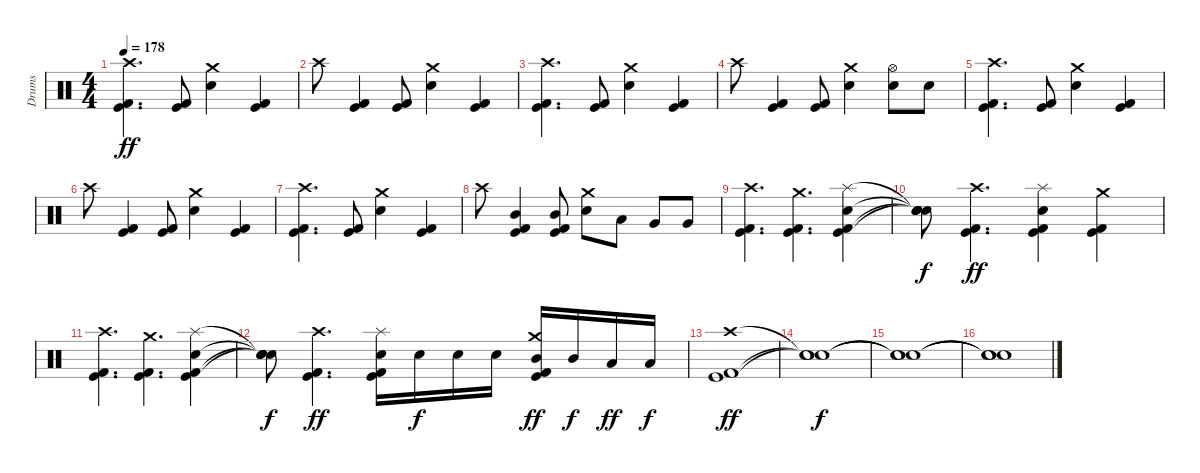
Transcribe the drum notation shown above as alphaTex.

\track ("Drums" "Drums") {instrument percussion}
\staff {score}
\articulation defaults
\ts (4 4)
\tempo 178
\clef neutral
\ks c
("Kick (hit)" "Kick (hit) 2" "Crash high (hit)").4{d dy ff} ("Kick (hit)" "Kick (hit) 2").8 ("Electric Snare (hit)" "Crash medium (hit)").4 ("Kick (hit)" "Kick (hit) 2").4 |
"Crash high (hit)".8 ("Kick (hit)" "Kick (hit) 2").4 ("Kick (hit)" "Kick (hit) 2").8 ("Electric Snare (hit)" "Crash medium (hit)").4 ("Kick (hit)" "Kick (hit) 2").4 |
("Kick (hit)" "Kick (hit) 2" "Crash high (hit)").4{d} ("Kick (hit)" "Kick (hit) 2").8 ("Electric Snare (hit)" "Crash medium (hit)").4 ("Kick (hit)" "Kick (hit) 2").4 |
"Crash high (hit)".8 ("Kick (hit)" "Kick (hit) 2").4 ("Kick (hit)" "Kick (hit) 2").8 ("Electric Snare (hit)" "Crash medium (hit)").4 ("Electric Snare (hit)" "Hi-Hat (open)").8 "Electric Snare (hit)".8 |
("Kick (hit)" "Kick (hit) 2" "Crash high (hit)").4{d} ("Kick (hit)" "Kick (hit) 2").8 ("Electric Snare (hit)" "Crash medium (hit)").4 ("Kick (hit)" "Kick (hit) 2").4 |
"Crash high (hit)".8 ("Kick (hit)" "Kick (hit) 2").4 ("Kick (hit)" "Kick (hit) 2").8 ("Electric Snare (hit)" "Crash medium (hit)").4 ("Kick (hit)" "Kick (hit) 2").4 |
("Kick (hit)" "Kick (hit) 2" "Crash high (hit)").4{d} ("Kick (hit)" "Kick (hit) 2").8 ("Electric Snare (hit)" "Crash medium (hit)").4 ("Kick (hit)" "Kick (hit) 2").4 |
"Crash high (hit)".8 ("Kick (hit)" "Kick (hit) 2" "Mid Tom (hit)").4 ("Kick (hit)" "Kick (hit) 2" "Mid Tom (hit)").8 ("Electric Snare (hit)" "Crash medium (hit)").8 "Low Tom (hit)".8 "Very Low Tom (hit)".8 "Very Low Tom (hit)".8 |
("Kick (hit)" "Kick (hit) 2" "Crash high (hit)").4{d} ("Kick (hit)" "Kick (hit) 2" "Crash medium (hit)").4{d} ("Kick (hit)" "Kick (hit) 2" "Electric Snare (hit)" "Splash (hit)").4 |
("Snare (hit)"{t} "Snare (hit)"{t} "Snare (hit)"{t} "Snare (hit)"{t}).8{dy f} ("Kick (hit)" "Kick (hit) 2" "Crash high (hit)").4{d dy ff} ("Kick (hit)" "Kick (hit) 2" "Electric Snare (hit)" "Splash (hit)").4 ("Kick (hit)" "Kick (hit) 2" "Crash medium (hit)").4 |
("Kick (hit)" "Kick (hit) 2" "Crash high (hit)").4{d} ("Kick (hit)" "Kick (hit) 2" "Crash medium (hit)").4{d} ("Kick (hit)" "Kick (hit) 2" "Electric Snare (hit)" "Splash (hit)").4 |
("Snare (hit)"{t} "Snare (hit)"{t} "Snare (hit)"{t} "Snare (hit)"{t}).8{dy f} ("Kick (hit)" "Kick (hit) 2" "Crash high (hit)").4{d dy ff} ("Kick (hit)" "Kick (hit) 2" "Electric Snare (hit)" "Splash (hit)").16 "Electric Snare (hit)".16{dy f} "Electric Snare (hit)".16 "Electric Snare (hit)".16 ("Kick (hit)" "Kick (hit) 2" "Mid Tom (hit)" "Crash medium (hit)").16{dy ff} "Mid Tom (hit)".16{dy f} "Low Tom (hit)".16{dy ff} "Low Tom (hit)".16{dy f} |
("Kick (hit)" "Kick (hit) 2" "Crash high (hit)").1{dy ff} |
("Snare (hit)"{t} "Snare (hit)"{t} "Snare (hit)"{t}).1{dy f} |
("Snare (hit)"{t} "Snare (hit)"{t} "Snare (hit)"{t}).1 |
("Snare (hit)"{t} "Snare (hit)"{t} "Snare (hit)"{t}).1
